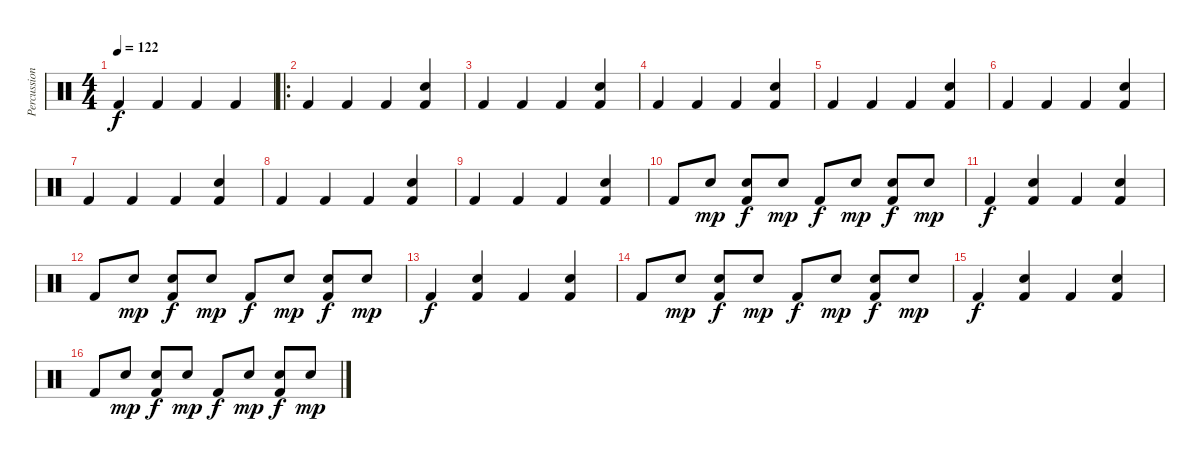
\track ("Percussion" "Percussion") {instrument percussion}
\staff {score}
\articulation defaults
\ts (4 4)
\tempo 122
\clef neutral
\ks c "Kick (hit) 2".4{dy f} "Kick (hit) 2".4 "Kick (hit) 2".4 "Kick (hit) 2".4
|
\ro "Kick (hit) 2".4 "Kick (hit) 2".4 "Kick (hit) 2".4
("Kick (hit) 2" "Snare (hit) 2").4 |
"Kick (hit) 2".4 "Kick (hit) 2".4 "Kick (hit) 2".4 ("Kick (hit) 2" "Snare (hit) 2").4 |
"Kick (hit) 2".4 "Kick (hit) 2".4 "Kick (hit) 2".4 ("Kick (hit) 2" "Snare (hit) 2").4 |
"Kick (hit) 2".4 "Kick (hit) 2".4 "Kick (hit) 2".4 ("Kick (hit) 2" "Snare (hit) 2").4 |
"Kick (hit) 2".4 "Kick (hit) 2".4 "Kick (hit) 2".4 ("Kick (hit) 2" "Snare (hit) 2").4 |
"Kick (hit) 2".4 "Kick (hit) 2".4 "Kick (hit) 2".4 ("Kick (hit) 2" "Snare (hit) 2").4 |
"Kick (hit) 2".4 "Kick (hit) 2".4 "Kick (hit) 2".4 ("Kick (hit) 2" "Snare (hit) 2").4 |
"Kick (hit) 2".4 "Kick (hit) 2".4 "Kick (hit) 2".4 ("Kick (hit) 2" "Snare (hit) 2").4 |
"Kick (hit) 2".8 "Hand Clap (hit)".8{dy mp balance 16} ("Snare (hit) 2" "Kick (hit) 2").8{dy f balance 8} "Hand Clap (hit)".8{dy mp balance 0} "Kick (hit) 2".8{dy f balance 8} "Hand Clap (hit)".8{dy mp balance 16} ("Snare (hit) 2" "Kick (hit) 2").8{dy f balance 8} "Hand Clap (hit)".8{dy mp balance 0} |
"Kick (hit) 2".4{dy f volume 16 balance 8} ("Snare (hit) 2" "Kick (hit) 2").4 "Kick (hit) 2".4 ("Snare (hit) 2" "Kick (hit) 2").4 |
"Kick (hit) 2".8 "Hand Clap (hit)".8{dy mp balance 16} ("Snare (hit) 2" "Kick (hit) 2").8{dy f balance 8} "Hand Clap (hit)".8{dy mp balance 0} "Kick (hit) 2".8{dy f balance 8} "Hand Clap (hit)".8{dy mp balance 16} ("Snare (hit) 2" "Kick (hit) 2").8{dy f balance 8} "Hand Clap (hit)".8{dy mp balance 0} |
"Kick (hit) 2".4{dy f volume 16 balance 8} ("Snare (hit) 2" "Kick (hit) 2").4 "Kick (hit) 2".4 ("Snare (hit) 2" "Kick (hit) 2").4 |
"Kick (hit) 2".8 "Hand Clap (hit)".8{dy mp balance 16} ("Snare (hit) 2" "Kick (hit) 2").8{dy f balance 8} "Hand Clap (hit)".8{dy mp balance 0} "Kick (hit) 2".8{dy f balance 8} "Hand Clap (hit)".8{dy mp balance 16} ("Snare (hit) 2" "Kick (hit) 2").8{dy f balance 8} "Hand Clap (hit)".8{dy mp balance 0} |
"Kick (hit) 2".4{dy f volume 16 balance 8} ("Snare (hit) 2" "Kick (hit) 2").4 "Kick (hit) 2".4 ("Snare (hit) 2" "Kick (hit) 2").4 |
"Kick (hit) 2".8 "Hand Clap (hit)".8{dy mp balance 16} ("Snare (hit) 2" "Kick (hit) 2").8{dy f balance 8} "Hand Clap (hit)".8{dy mp balance 0} "Kick (hit) 2".8{dy f balance 8} "Hand Clap (hit)".8{dy mp balance 16} ("Snare (hit) 2" "Kick (hit) 2").8{dy f balance 8} "Hand Clap (hit)".8{dy mp balance 0}
